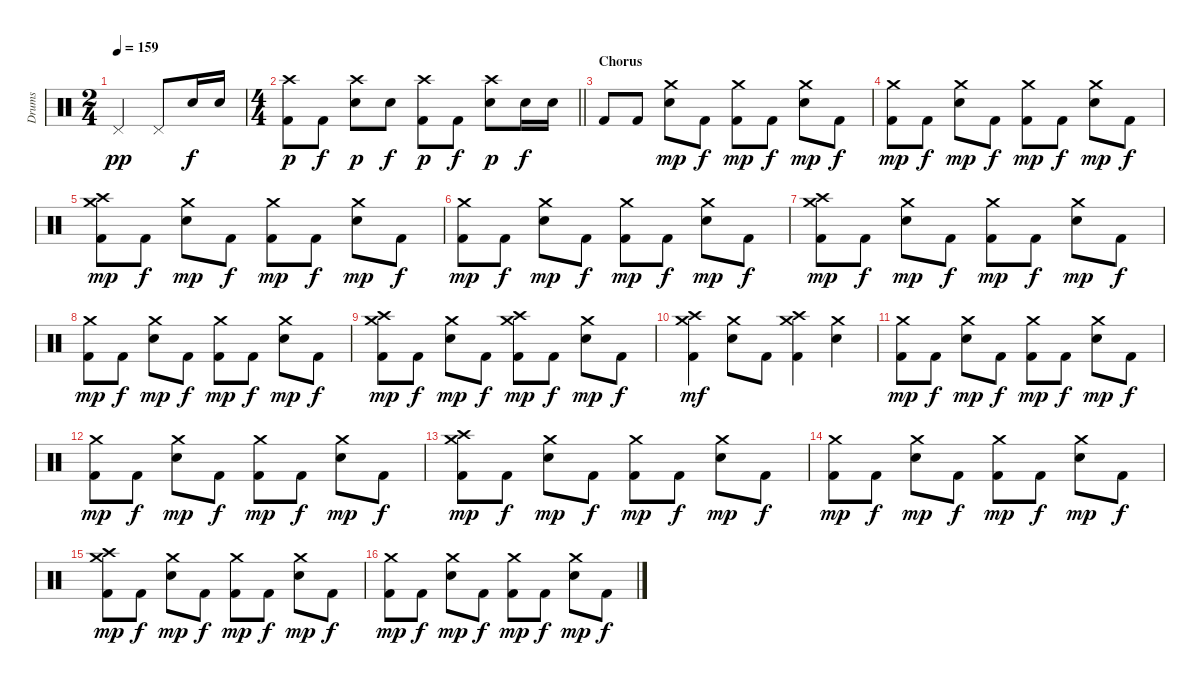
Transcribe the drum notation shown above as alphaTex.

\track ("Drums" "Drums") {instrument percussion}
\staff {score}
\articulation defaults
\ts (2 4)
\tempo 159
\clef neutral
\ks c "Pedal Hi-Hat (hit)".4{dy pp} "Pedal Hi-Hat (hit)".8 "Electric Snare (hit)".16{dy f} "Electric Snare (hit)".16
|
\ts (4 4)
\barLineRight lightlight
("Crash high (hit)" "Kick (hit) 2").8{dy p} "Kick (hit) 2".8{dy f} ("Crash high (hit)" "Electric Snare (hit)").8{dy p} "Electric Snare (hit)".8{dy f} ("Crash high (hit)" "Kick (hit) 2").8{dy p} "Kick (hit) 2".8{dy f} ("Crash high (hit)" "Electric Snare (hit)").8{dy p} "Electric Snare (hit)".16{dy f} "Electric Snare (hit)".16 |
\section ("" "Chorus")
"Kick (hit) 2".8 "Kick (hit) 2".8 ("Crash medium (hit)" "Electric Snare (hit)").8{dy mp} "Kick (hit) 2".8{dy f} ("Crash medium (hit)" "Kick (hit) 2").8{dy mp} "Kick (hit) 2".8{dy f} ("Crash medium (hit)" "Electric Snare (hit)").8{dy mp} "Kick (hit) 2".8{dy f} |
("Crash medium (hit)" "Kick (hit) 2").8{dy mp} "Kick (hit) 2".8{dy f} ("Crash medium (hit)" "Electric Snare (hit)").8{dy mp} "Kick (hit) 2".8{dy f} ("Crash medium (hit)" "Kick (hit) 2").8{dy mp} "Kick (hit) 2".8{dy f} ("Crash medium (hit)" "Electric Snare (hit)").8{dy mp} "Kick (hit) 2".8{dy f} |
("Crash high (hit)" "Crash medium (hit)" "Kick (hit) 2").8{dy mp} "Kick (hit) 2".8{dy f} ("Crash medium (hit)" "Electric Snare (hit)").8{dy mp} "Kick (hit) 2".8{dy f} ("Crash medium (hit)" "Kick (hit) 2").8{dy mp} "Kick (hit) 2".8{dy f} ("Crash medium (hit)" "Electric Snare (hit)").8{dy mp} "Kick (hit) 2".8{dy f} |
("Crash medium (hit)" "Kick (hit) 2").8{dy mp} "Kick (hit) 2".8{dy f} ("Crash medium (hit)" "Electric Snare (hit)").8{dy mp} "Kick (hit) 2".8{dy f} ("Crash medium (hit)" "Kick (hit) 2").8{dy mp} "Kick (hit) 2".8{dy f} ("Crash medium (hit)" "Electric Snare (hit)").8{dy mp} "Kick (hit) 2".8{dy f} |
("Crash high (hit)" "Crash medium (hit)" "Kick (hit) 2").8{dy mp} "Kick (hit) 2".8{dy f} ("Crash medium (hit)" "Electric Snare (hit)").8{dy mp} "Kick (hit) 2".8{dy f} ("Crash medium (hit)" "Kick (hit) 2").8{dy mp} "Kick (hit) 2".8{dy f} ("Crash medium (hit)" "Electric Snare (hit)").8{dy mp} "Kick (hit) 2".8{dy f} |
("Crash medium (hit)" "Kick (hit) 2").8{dy mp} "Kick (hit) 2".8{dy f} ("Crash medium (hit)" "Electric Snare (hit)").8{dy mp} "Kick (hit) 2".8{dy f} ("Crash medium (hit)" "Kick (hit) 2").8{dy mp} "Kick (hit) 2".8{dy f} ("Crash medium (hit)" "Electric Snare (hit)").8{dy mp} "Kick (hit) 2".8{dy f} |
("Crash high (hit)" "Crash medium (hit)" "Kick (hit) 2").8{dy mp} "Kick (hit) 2".8{dy f} ("Crash medium (hit)" "Electric Snare (hit)").8{dy mp} "Kick (hit) 2".8{dy f} ("Crash high (hit)" "Crash medium (hit)" "Kick (hit) 2").8{dy mp} "Kick (hit) 2".8{dy f} ("Crash medium (hit)" "Electric Snare (hit)").8{dy mp} "Kick (hit) 2".8{dy f} |
("Crash high (hit)" "Crash medium (hit)" "Kick (hit) 2").4{dy mf} ("Crash medium (hit)" "Electric Snare (hit)").8 "Kick (hit) 2".8 ("Crash high (hit)" "Crash medium (hit)" "Kick (hit) 2").4 ("Crash medium (hit)" "Electric Snare (hit)").4 |
("Crash medium (hit)" "Kick (hit) 2").8{dy mp} "Kick (hit) 2".8{dy f} ("Crash medium (hit)" "Electric Snare (hit)").8{dy mp} "Kick (hit) 2".8{dy f} ("Crash medium (hit)" "Kick (hit) 2").8{dy mp} "Kick (hit) 2".8{dy f} ("Crash medium (hit)" "Electric Snare (hit)").8{dy mp} "Kick (hit) 2".8{dy f} |
("Crash medium (hit)" "Kick (hit) 2").8{dy mp} "Kick (hit) 2".8{dy f} ("Crash medium (hit)" "Electric Snare (hit)").8{dy mp} "Kick (hit) 2".8{dy f} ("Crash medium (hit)" "Kick (hit) 2").8{dy mp} "Kick (hit) 2".8{dy f} ("Crash medium (hit)" "Electric Snare (hit)").8{dy mp} "Kick (hit) 2".8{dy f} |
("Crash high (hit)" "Crash medium (hit)" "Kick (hit) 2").8{dy mp} "Kick (hit) 2".8{dy f} ("Crash medium (hit)" "Electric Snare (hit)").8{dy mp} "Kick (hit) 2".8{dy f} ("Crash medium (hit)" "Kick (hit) 2").8{dy mp} "Kick (hit) 2".8{dy f} ("Crash medium (hit)" "Electric Snare (hit)").8{dy mp} "Kick (hit) 2".8{dy f} |
("Crash medium (hit)" "Kick (hit) 2").8{dy mp} "Kick (hit) 2".8{dy f} ("Crash medium (hit)" "Electric Snare (hit)").8{dy mp} "Kick (hit) 2".8{dy f} ("Crash medium (hit)" "Kick (hit) 2").8{dy mp} "Kick (hit) 2".8{dy f} ("Crash medium (hit)" "Electric Snare (hit)").8{dy mp} "Kick (hit) 2".8{dy f} |
("Crash high (hit)" "Crash medium (hit)" "Kick (hit) 2").8{dy mp} "Kick (hit) 2".8{dy f} ("Crash medium (hit)" "Electric Snare (hit)").8{dy mp} "Kick (hit) 2".8{dy f} ("Crash medium (hit)" "Kick (hit) 2").8{dy mp} "Kick (hit) 2".8{dy f} ("Crash medium (hit)" "Electric Snare (hit)").8{dy mp} "Kick (hit) 2".8{dy f} |
("Crash medium (hit)" "Kick (hit) 2").8{dy mp} "Kick (hit) 2".8{dy f} ("Crash medium (hit)" "Electric Snare (hit)").8{dy mp} "Kick (hit) 2".8{dy f} ("Crash medium (hit)" "Kick (hit) 2").8{dy mp} "Kick (hit) 2".8{dy f} ("Crash medium (hit)" "Electric Snare (hit)").8{dy mp} "Kick (hit) 2".8{dy f}
